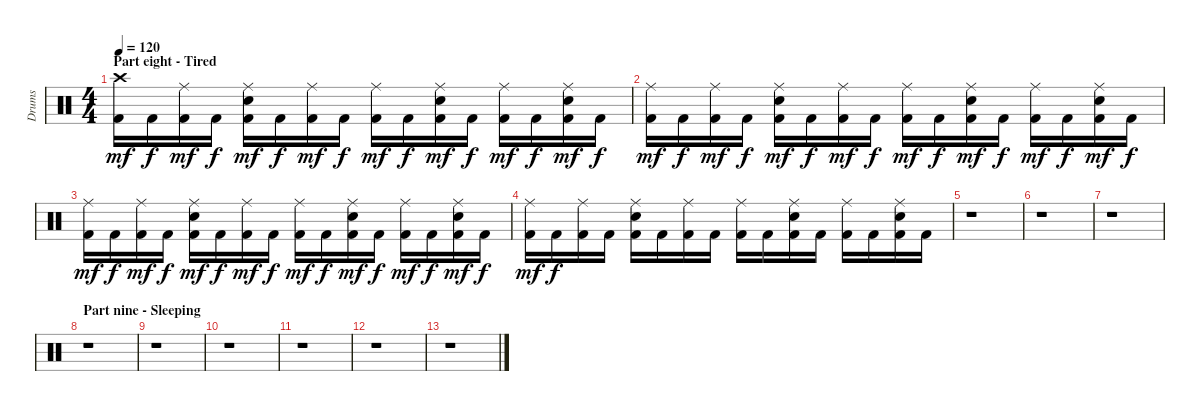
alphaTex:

\track ("Drums" "Drums") {instrument percussion}
\staff {score}
\articulation defaults
\ts (4 4)
\section ("" "Part eight - Tired")
\tempo 120
\clef neutral
\ks c
("Crash high (hit)" "Kick (hit) 2").16{dy mf volume 10} "Kick (hit) 2".16{dy f} ("Ride (middle)" "Kick (hit) 2").16{dy mf} "Kick (hit) 2".16{dy f} ("Ride (middle)" "Electric Snare (hit)" "Kick (hit) 2").16{dy mf} "Kick (hit) 2".16{dy f} ("Ride (middle)" "Kick (hit) 2").16{dy mf} "Kick (hit) 2".16{dy f} ("Ride (middle)" "Kick (hit) 2").16{dy mf} "Kick (hit) 2".16{dy f} ("Ride (middle)" "Electric Snare (hit)" "Kick (hit) 2").16{dy mf} "Kick (hit) 2".16{dy f} ("Ride (middle)" "Kick (hit) 2").16{dy mf} "Kick (hit) 2".16{dy f} ("Ride (middle)" "Electric Snare (hit)" "Kick (hit) 2").16{dy mf} "Kick (hit) 2".16{dy f} |
("Ride (middle)" "Kick (hit) 2").16{dy mf} "Kick (hit) 2".16{dy f} ("Ride (middle)" "Kick (hit) 2").16{dy mf} "Kick (hit) 2".16{dy f} ("Ride (middle)" "Electric Snare (hit)" "Kick (hit) 2").16{dy mf} "Kick (hit) 2".16{dy f} ("Ride (middle)" "Kick (hit) 2").16{dy mf} "Kick (hit) 2".16{dy f} ("Ride (middle)" "Kick (hit) 2").16{dy mf} "Kick (hit) 2".16{dy f} ("Ride (middle)" "Electric Snare (hit)" "Kick (hit) 2").16{dy mf} "Kick (hit) 2".16{dy f} ("Ride (middle)" "Kick (hit) 2").16{dy mf} "Kick (hit) 2".16{dy f} ("Ride (middle)" "Electric Snare (hit)" "Kick (hit) 2").16{dy mf} "Kick (hit) 2".16{dy f} |
("Ride (middle)" "Kick (hit) 2").16{dy mf volume 1} "Kick (hit) 2".16{dy f} ("Ride (middle)" "Kick (hit) 2").16{dy mf} "Kick (hit) 2".16{dy f} ("Ride (middle)" "Electric Snare (hit)" "Kick (hit) 2").16{dy mf} "Kick (hit) 2".16{dy f} ("Ride (middle)" "Kick (hit) 2").16{dy mf} "Kick (hit) 2".16{dy f} ("Ride (middle)" "Kick (hit) 2").16{dy mf} "Kick (hit) 2".16{dy f} ("Ride (middle)" "Electric Snare (hit)" "Kick (hit) 2").16{dy mf} "Kick (hit) 2".16{dy f} ("Ride (middle)" "Kick (hit) 2").16{dy mf} "Kick (hit) 2".16{dy f} ("Ride (middle)" "Electric Snare (hit)" "Kick (hit) 2").16{dy mf} "Kick (hit) 2".16{dy f} |
("Ride (middle)" "Kick (hit) 2").16{dy mf} "Kick (hit) 2".16{dy f} ("Ride (middle)" "Kick (hit) 2").16 "Kick (hit) 2".16 ("Ride (middle)" "Electric Snare (hit)" "Kick (hit) 2").16 "Kick (hit) 2".16 ("Ride (middle)" "Kick (hit) 2").16 "Kick (hit) 2".16 ("Ride (middle)" "Kick (hit) 2").16 "Kick (hit) 2".16 ("Ride (middle)" "Electric Snare (hit)" "Kick (hit) 2").16 "Kick (hit) 2".16 ("Ride (middle)" "Kick (hit) 2").16 "Kick (hit) 2".16 ("Ride (middle)" "Electric Snare (hit)" "Kick (hit) 2").16 "Kick (hit) 2".16 |
r.1 |
r.1 |
r.1 |
\section ("" "Part nine - Sleeping")
r.1 |
r.1 |
r.1 |
r.1 |
r.1 |
r.1
